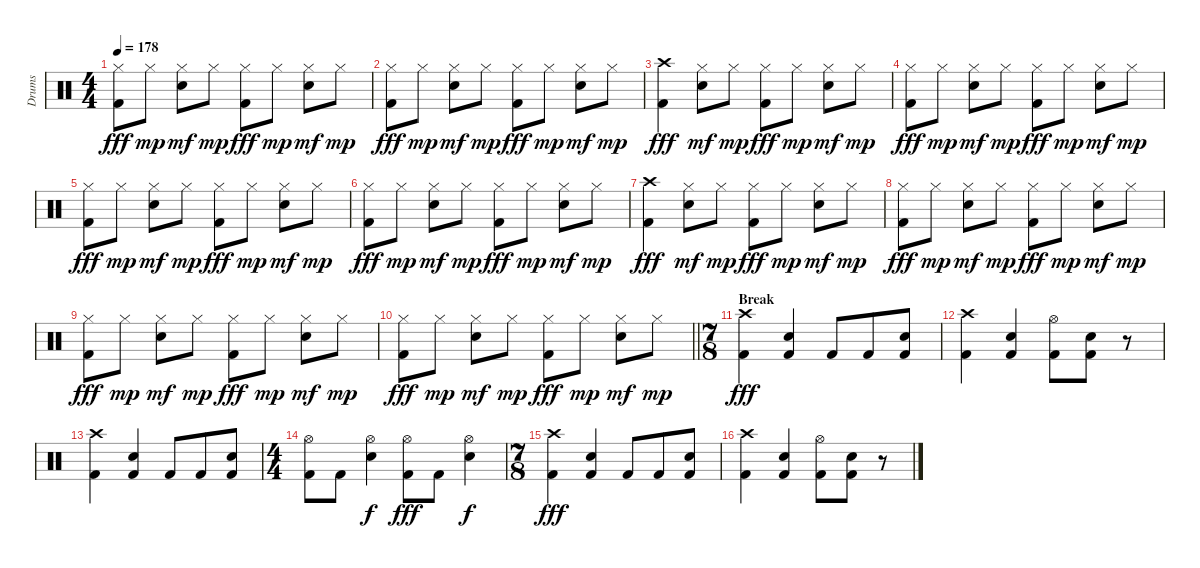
\track ("Drums" "Drums") {instrument percussion}
\staff {score}
\articulation defaults
\ts (4 4)
\tempo 178
\clef neutral
\ks c
("Hi-Hat (closed)" "Kick (hit) 2").8{dy fff} "Hi-Hat (closed)".8{dy mp} ("Hi-Hat (closed)" "Electric Snare (hit)").8{dy mf} "Hi-Hat (closed)".8{dy mp} ("Hi-Hat (closed)" "Kick (hit) 2").8{dy fff} "Hi-Hat (closed)".8{dy mp} ("Hi-Hat (closed)" "Electric Snare (hit)").8{dy mf} "Hi-Hat (closed)".8{dy mp} |
("Hi-Hat (closed)" "Kick (hit) 2").8{dy fff} "Hi-Hat (closed)".8{dy mp} ("Hi-Hat (closed)" "Electric Snare (hit)").8{dy mf} "Hi-Hat (closed)".8{dy mp} ("Hi-Hat (closed)" "Kick (hit) 2").8{dy fff} "Hi-Hat (closed)".8{dy mp} ("Hi-Hat (closed)" "Electric Snare (hit)").8{dy mf} "Hi-Hat (closed)".8{dy mp} |
("Crash high (hit)" "Kick (hit) 2").4{dy fff} ("Hi-Hat (closed)" "Electric Snare (hit)").8{dy mf} "Hi-Hat (closed)".8{dy mp} ("Hi-Hat (closed)" "Kick (hit) 2").8{dy fff} "Hi-Hat (closed)".8{dy mp} ("Hi-Hat (closed)" "Electric Snare (hit)").8{dy mf} "Hi-Hat (closed)".8{dy mp} |
("Hi-Hat (closed)" "Kick (hit) 2").8{dy fff} "Hi-Hat (closed)".8{dy mp} ("Hi-Hat (closed)" "Electric Snare (hit)").8{dy mf} "Hi-Hat (closed)".8{dy mp} ("Hi-Hat (closed)" "Kick (hit) 2").8{dy fff} "Hi-Hat (closed)".8{dy mp} ("Hi-Hat (closed)" "Electric Snare (hit)").8{dy mf} "Hi-Hat (closed)".8{dy mp} |
("Hi-Hat (closed)" "Kick (hit) 2").8{dy fff} "Hi-Hat (closed)".8{dy mp} ("Hi-Hat (closed)" "Electric Snare (hit)").8{dy mf} "Hi-Hat (closed)".8{dy mp} ("Hi-Hat (closed)" "Kick (hit) 2").8{dy fff} "Hi-Hat (closed)".8{dy mp} ("Hi-Hat (closed)" "Electric Snare (hit)").8{dy mf} "Hi-Hat (closed)".8{dy mp} |
("Hi-Hat (closed)" "Kick (hit) 2").8{dy fff} "Hi-Hat (closed)".8{dy mp} ("Hi-Hat (closed)" "Electric Snare (hit)").8{dy mf} "Hi-Hat (closed)".8{dy mp} ("Hi-Hat (closed)" "Kick (hit) 2").8{dy fff} "Hi-Hat (closed)".8{dy mp} ("Hi-Hat (closed)" "Electric Snare (hit)").8{dy mf} "Hi-Hat (closed)".8{dy mp} |
("Crash high (hit)" "Kick (hit) 2").4{dy fff} ("Hi-Hat (closed)" "Electric Snare (hit)").8{dy mf} "Hi-Hat (closed)".8{dy mp} ("Hi-Hat (closed)" "Kick (hit) 2").8{dy fff} "Hi-Hat (closed)".8{dy mp} ("Hi-Hat (closed)" "Electric Snare (hit)").8{dy mf} "Hi-Hat (closed)".8{dy mp} |
("Hi-Hat (closed)" "Kick (hit) 2").8{dy fff} "Hi-Hat (closed)".8{dy mp} ("Hi-Hat (closed)" "Electric Snare (hit)").8{dy mf} "Hi-Hat (closed)".8{dy mp} ("Hi-Hat (closed)" "Kick (hit) 2").8{dy fff} "Hi-Hat (closed)".8{dy mp} ("Hi-Hat (closed)" "Electric Snare (hit)").8{dy mf} "Hi-Hat (closed)".8{dy mp} |
("Hi-Hat (closed)" "Kick (hit) 2").8{dy fff} "Hi-Hat (closed)".8{dy mp} ("Hi-Hat (closed)" "Electric Snare (hit)").8{dy mf} "Hi-Hat (closed)".8{dy mp} ("Hi-Hat (closed)" "Kick (hit) 2").8{dy fff} "Hi-Hat (closed)".8{dy mp} ("Hi-Hat (closed)" "Electric Snare (hit)").8{dy mf} "Hi-Hat (closed)".8{dy mp} |
\barLineRight lightlight
("Hi-Hat (closed)" "Kick (hit) 2").8{dy fff} "Hi-Hat (closed)".8{dy mp} ("Hi-Hat (closed)" "Electric Snare (hit)").8{dy mf} "Hi-Hat (closed)".8{dy mp} ("Hi-Hat (closed)" "Kick (hit) 2").8{dy fff} "Hi-Hat (closed)".8{dy mp} ("Hi-Hat (closed)" "Electric Snare (hit)").8{dy mf} "Hi-Hat (closed)".8{dy mp} |
\ts (7 8)
\section ("" "Break")
("Crash high (hit)" "Kick (hit) 2").4{dy fff} ("Electric Snare (hit)" "Kick (hit) 2").4 "Kick (hit) 2".8 "Kick (hit) 2".8 ("Electric Snare (hit)" "Kick (hit) 2").8 |
("Crash high (hit)" "Kick (hit) 2").4 ("Electric Snare (hit)" "Kick (hit) 2").4 ("Hi-Hat (open)" "Kick (hit) 2").8 ("Electric Snare (hit)" "Kick (hit) 2").8 r.8 |
("Crash high (hit)" "Kick (hit) 2").4 ("Electric Snare (hit)" "Kick (hit) 2").4 "Kick (hit) 2".8 "Kick (hit) 2".8 ("Electric Snare (hit)" "Kick (hit) 2").8 |
\ts (4 4)
("Hi-Hat (open)" "Kick (hit) 2").8 "Kick (hit) 2".8 ("Hi-Hat (open)" "Electric Snare (hit)").4{dy f} ("Hi-Hat (open)" "Kick (hit) 2").8{dy fff} "Kick (hit) 2".8 ("Hi-Hat (open)" "Electric Snare (hit)").4{dy f} |
\ts (7 8)
("Crash high (hit)" "Kick (hit) 2").4{dy fff} ("Electric Snare (hit)" "Kick (hit) 2").4 "Kick (hit) 2".8 "Kick (hit) 2".8 ("Electric Snare (hit)" "Kick (hit) 2").8 |
("Crash high (hit)" "Kick (hit) 2").4 ("Electric Snare (hit)" "Kick (hit) 2").4 ("Hi-Hat (open)" "Kick (hit) 2").8 ("Electric Snare (hit)" "Kick (hit) 2").8 r.8
